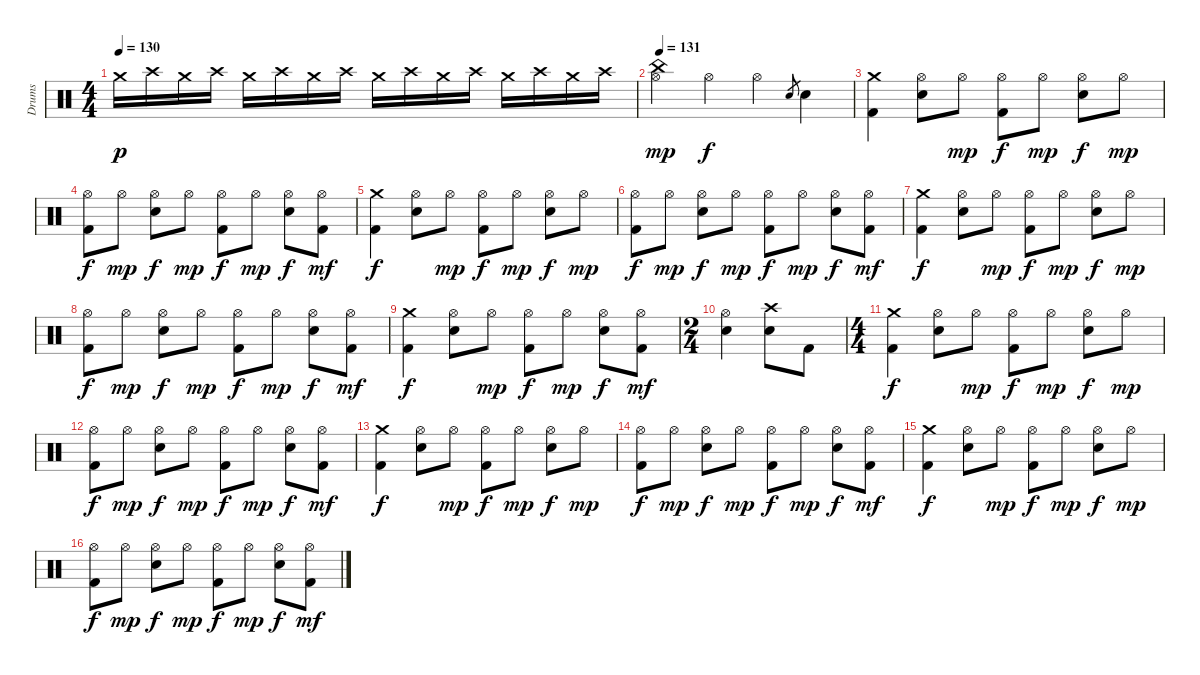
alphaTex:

\track ("Drums" "Drums") {instrument percussion}
\staff {score}
\articulation defaults
\ts (4 4)
\tempo 130
\clef neutral
\ks c "Crash medium (hit)".16{dy p} "Crash high (hit)".16 "Crash medium (hit)".16 "Crash high (hit)".16 "Crash medium (hit)".16 "Crash high (hit)".16 "Crash medium (hit)".16 "Crash high (hit)".16 "Crash medium (hit)".16 "Crash high (hit)".16 "Crash medium (hit)".16 "Crash high (hit)".16 "Crash medium (hit)".16 "Crash high (hit)".16 "Crash medium (hit)".16 "Crash high (hit)".16
|
\tempo 131
("China (hit)" "Hi-Hat (open)").4{dy mp} "Hi-Hat (open)".4{dy f} "Hi-Hat (open)".4 "Electric Snare (hit)".8{gr} "Electric Snare (hit)".4 |
("Crash medium (hit)" "Kick (hit) 2").4 ("Hi-Hat (open)" "Electric Snare (hit)").8 "Hi-Hat (open)".8{dy mp} ("Hi-Hat (open)" "Kick (hit) 2").8{dy f} "Hi-Hat (open)".8{dy mp} ("Hi-Hat (open)" "Electric Snare (hit)").8{dy f} "Hi-Hat (open)".8{dy mp} |
("Hi-Hat (open)" "Kick (hit) 2").8{dy f} "Hi-Hat (open)".8{dy mp} ("Hi-Hat (open)" "Electric Snare (hit)").8{dy f} "Hi-Hat (open)".8{dy mp} ("Hi-Hat (open)" "Kick (hit) 2").8{dy f} "Hi-Hat (open)".8{dy mp} ("Hi-Hat (open)" "Electric Snare (hit)").8{dy f} ("Hi-Hat (open)" "Kick (hit) 2").8{dy mf} |
("Crash medium (hit)" "Kick (hit) 2").4{dy f} ("Hi-Hat (open)" "Electric Snare (hit)").8 "Hi-Hat (open)".8{dy mp} ("Hi-Hat (open)" "Kick (hit) 2").8{dy f} "Hi-Hat (open)".8{dy mp} ("Hi-Hat (open)" "Electric Snare (hit)").8{dy f} "Hi-Hat (open)".8{dy mp} |
("Hi-Hat (open)" "Kick (hit) 2").8{dy f} "Hi-Hat (open)".8{dy mp} ("Hi-Hat (open)" "Electric Snare (hit)").8{dy f} "Hi-Hat (open)".8{dy mp} ("Hi-Hat (open)" "Kick (hit) 2").8{dy f} "Hi-Hat (open)".8{dy mp} ("Hi-Hat (open)" "Electric Snare (hit)").8{dy f} ("Hi-Hat (open)" "Kick (hit) 2").8{dy mf} |
("Crash medium (hit)" "Kick (hit) 2").4{dy f} ("Hi-Hat (open)" "Electric Snare (hit)").8 "Hi-Hat (open)".8{dy mp} ("Hi-Hat (open)" "Kick (hit) 2").8{dy f} "Hi-Hat (open)".8{dy mp} ("Hi-Hat (open)" "Electric Snare (hit)").8{dy f} "Hi-Hat (open)".8{dy mp} |
("Hi-Hat (open)" "Kick (hit) 2").8{dy f} "Hi-Hat (open)".8{dy mp} ("Hi-Hat (open)" "Electric Snare (hit)").8{dy f} "Hi-Hat (open)".8{dy mp} ("Hi-Hat (open)" "Kick (hit) 2").8{dy f} "Hi-Hat (open)".8{dy mp} ("Hi-Hat (open)" "Electric Snare (hit)").8{dy f} ("Hi-Hat (open)" "Kick (hit) 2").8{dy mf} |
("Crash medium (hit)" "Kick (hit) 2").4{dy f} ("Hi-Hat (open)" "Electric Snare (hit)").8 "Hi-Hat (open)".8{dy mp} ("Hi-Hat (open)" "Kick (hit) 2").8{dy f} "Hi-Hat (open)".8{dy mp} ("Hi-Hat (open)" "Electric Snare (hit)").8{dy f} ("Hi-Hat (open)" "Kick (hit) 2").8{dy mf} |
\ts (2 4)
("Hi-Hat (open)" "Electric Snare (hit)").4 ("Crash high (hit)" "Electric Snare (hit)").8 "Kick (hit) 2".8 |
\ts (4 4)
("Crash medium (hit)" "Kick (hit) 2").4{dy f} ("Hi-Hat (open)" "Electric Snare (hit)").8 "Hi-Hat (open)".8{dy mp} ("Hi-Hat (open)" "Kick (hit) 2").8{dy f} "Hi-Hat (open)".8{dy mp} ("Hi-Hat (open)" "Electric Snare (hit)").8{dy f} "Hi-Hat (open)".8{dy mp} |
("Hi-Hat (open)" "Kick (hit) 2").8{dy f} "Hi-Hat (open)".8{dy mp} ("Hi-Hat (open)" "Electric Snare (hit)").8{dy f} "Hi-Hat (open)".8{dy mp} ("Hi-Hat (open)" "Kick (hit) 2").8{dy f} "Hi-Hat (open)".8{dy mp} ("Hi-Hat (open)" "Electric Snare (hit)").8{dy f} ("Hi-Hat (open)" "Kick (hit) 2").8{dy mf} |
("Crash medium (hit)" "Kick (hit) 2").4{dy f} ("Hi-Hat (open)" "Electric Snare (hit)").8 "Hi-Hat (open)".8{dy mp} ("Hi-Hat (open)" "Kick (hit) 2").8{dy f} "Hi-Hat (open)".8{dy mp} ("Hi-Hat (open)" "Electric Snare (hit)").8{dy f} "Hi-Hat (open)".8{dy mp} |
("Hi-Hat (open)" "Kick (hit) 2").8{dy f} "Hi-Hat (open)".8{dy mp} ("Hi-Hat (open)" "Electric Snare (hit)").8{dy f} "Hi-Hat (open)".8{dy mp} ("Hi-Hat (open)" "Kick (hit) 2").8{dy f} "Hi-Hat (open)".8{dy mp} ("Hi-Hat (open)" "Electric Snare (hit)").8{dy f} ("Hi-Hat (open)" "Kick (hit) 2").8{dy mf} |
("Crash medium (hit)" "Kick (hit) 2").4{dy f} ("Hi-Hat (open)" "Electric Snare (hit)").8 "Hi-Hat (open)".8{dy mp} ("Hi-Hat (open)" "Kick (hit) 2").8{dy f} "Hi-Hat (open)".8{dy mp} ("Hi-Hat (open)" "Electric Snare (hit)").8{dy f} "Hi-Hat (open)".8{dy mp} |
("Hi-Hat (open)" "Kick (hit) 2").8{dy f} "Hi-Hat (open)".8{dy mp} ("Hi-Hat (open)" "Electric Snare (hit)").8{dy f} "Hi-Hat (open)".8{dy mp} ("Hi-Hat (open)" "Kick (hit) 2").8{dy f} "Hi-Hat (open)".8{dy mp} ("Hi-Hat (open)" "Electric Snare (hit)").8{dy f} ("Hi-Hat (open)" "Kick (hit) 2").8{dy mf}
